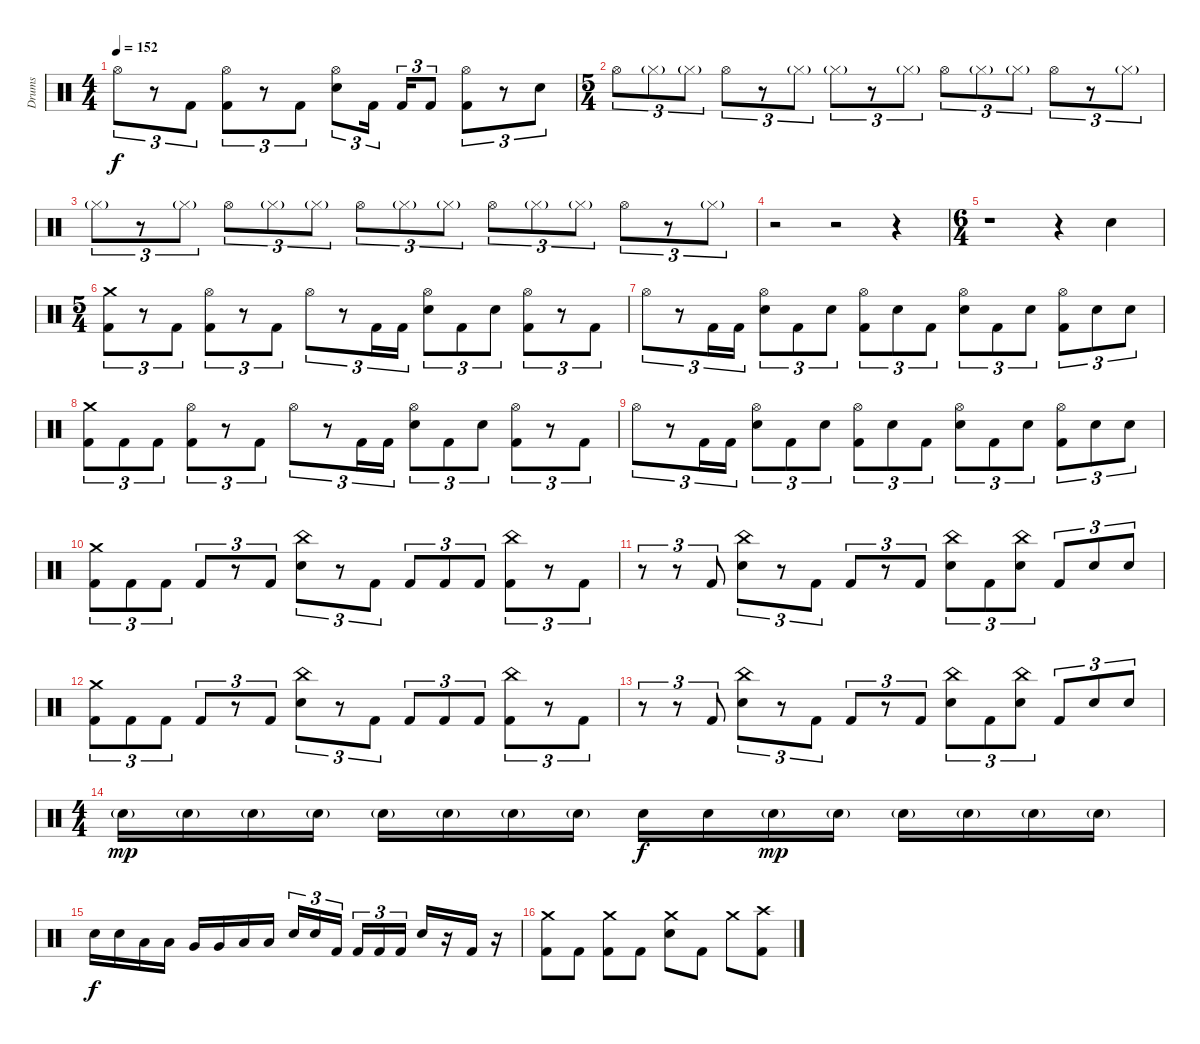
\track ("Drums" "Drums") {instrument percussion}
\staff {score}
\articulation defaults
\ts (4 4)
\tempo 152
\clef neutral
\ks c "Hi-Hat (open)".8{tu (3 2) dy f}
r.8{tu (3 2)} "Kick (hit) 2".8{tu (3 2)} ("Hi-Hat (open)" "Kick (hit) 2").8{tu (3 2)} r.8{tu (3 2)} "Kick (hit) 2".8{tu (3 2)} ("Hi-Hat (open)" "Electric Snare (hit)").8{tu (3 2)} "Kick (hit) 2".16{tu (3 2)} "Kick (hit) 2".16{tu (3 2)} "Kick (hit) 2".8{tu (3 2)} ("Hi-Hat (open)" "Kick (hit) 2").8{tu (3 2)} r.8{tu (3 2)} "Electric Snare (hit)".8{tu (3 2)} |
\ts (5 4)
"Hi-Hat (open)".8{tu (3 2)} "Hi-Hat (closed)"{g}.8{tu (3 2)} "Hi-Hat (closed)"{g}.8{tu (3 2)} "Hi-Hat (open)".8{tu (3 2)} r.8{tu (3 2)} "Hi-Hat (closed)"{g}.8{tu (3 2)} "Hi-Hat (closed)"{g}.8{tu (3 2)} r.8{tu (3 2)} "Hi-Hat (closed)"{g}.8{tu (3 2)} "Hi-Hat (open)".8{tu (3 2)} "Hi-Hat (closed)"{g}.8{tu (3 2)} "Hi-Hat (closed)"{g}.8{tu (3 2)} "Hi-Hat (open)".8{tu (3 2)} r.8{tu (3 2)} "Hi-Hat (closed)"{g}.8{tu (3 2)} |
"Hi-Hat (closed)"{g}.8{tu (3 2)} r.8{tu (3 2)} "Hi-Hat (closed)"{g}.8{tu (3 2)} "Hi-Hat (open)".8{tu (3 2)} "Hi-Hat (closed)"{g}.8{tu (3 2)} "Hi-Hat (closed)"{g}.8{tu (3 2)} "Hi-Hat (open)".8{tu (3 2)} "Hi-Hat (closed)"{g}.8{tu (3 2)} "Hi-Hat (closed)"{g}.8{tu (3 2)} "Hi-Hat (open)".8{tu (3 2)} "Hi-Hat (closed)"{g}.8{tu (3 2)} "Hi-Hat (closed)"{g}.8{tu (3 2)} "Hi-Hat (open)".8{tu (3 2)} r.8{tu (3 2)} "Hi-Hat (closed)"{g}.8{tu (3 2)} |
r.2 r.2 r.4 |
\ts (6 4)
r.1 r.4 "Electric Snare (hit)".4 |
\ts (5 4)
("Crash medium (hit)" "Kick (hit) 2").8{tu (3 2)} r.8{tu (3 2)} "Kick (hit) 2".8{tu (3 2)} ("Hi-Hat (open)" "Kick (hit) 2").8{tu (3 2)} r.8{tu (3 2)} "Kick (hit) 2".8{tu (3 2)} "Hi-Hat (open)".8{tu (3 2)} r.8{tu (3 2)} "Kick (hit) 2".16{tu (3 2)} "Kick (hit) 2".16{tu (3 2)} ("Hi-Hat (open)" "Electric Snare (hit)").8{tu (3 2)} "Kick (hit) 2".8{tu (3 2)} "Electric Snare (hit)".8{tu (3 2)} ("Hi-Hat (open)" "Kick (hit) 2").8{tu (3 2)} r.8{tu (3 2)} "Kick (hit) 2".8{tu (3 2)} |
"Hi-Hat (open)".8{tu (3 2)} r.8{tu (3 2)} "Kick (hit) 2".16{tu (3 2)} "Kick (hit) 2".16{tu (3 2)} ("Hi-Hat (open)" "Electric Snare (hit)").8{tu (3 2)} "Kick (hit) 2".8{tu (3 2)} "Electric Snare (hit)".8{tu (3 2)} ("Hi-Hat (open)" "Kick (hit) 2").8{tu (3 2)} "Electric Snare (hit)".8{tu (3 2)} "Kick (hit) 2".8{tu (3 2)} ("Hi-Hat (open)" "Electric Snare (hit)").8{tu (3 2)} "Kick (hit) 2".8{tu (3 2)} "Electric Snare (hit)".8{tu (3 2)} ("Hi-Hat (open)" "Kick (hit) 2").8{tu (3 2)} "Electric Snare (hit)".8{tu (3 2)} "Electric Snare (hit)".8{tu (3 2)} |
("Crash medium (hit)" "Kick (hit) 2").8{tu (3 2)} "Kick (hit) 2".8{tu (3 2)} "Kick (hit) 2".8{tu (3 2)} ("Hi-Hat (open)" "Kick (hit) 2").8{tu (3 2)} r.8{tu (3 2)} "Kick (hit) 2".8{tu (3 2)} "Hi-Hat (open)".8{tu (3 2)} r.8{tu (3 2)} "Kick (hit) 2".16{tu (3 2)} "Kick (hit) 2".16{tu (3 2)} ("Hi-Hat (open)" "Electric Snare (hit)").8{tu (3 2)} "Kick (hit) 2".8{tu (3 2)} "Electric Snare (hit)".8{tu (3 2)} ("Hi-Hat (open)" "Kick (hit) 2").8{tu (3 2)} r.8{tu (3 2)} "Kick (hit) 2".8{tu (3 2)} |
"Hi-Hat (open)".8{tu (3 2)} r.8{tu (3 2)} "Kick (hit) 2".16{tu (3 2)} "Kick (hit) 2".16{tu (3 2)} ("Hi-Hat (open)" "Electric Snare (hit)").8{tu (3 2)} "Kick (hit) 2".8{tu (3 2)} "Electric Snare (hit)".8{tu (3 2)} ("Hi-Hat (open)" "Kick (hit) 2").8{tu (3 2)} "Electric Snare (hit)".8{tu (3 2)} "Kick (hit) 2".8{tu (3 2)} ("Hi-Hat (open)" "Electric Snare (hit)").8{tu (3 2)} "Kick (hit) 2".8{tu (3 2)} "Electric Snare (hit)".8{tu (3 2)} ("Hi-Hat (open)" "Kick (hit) 2").8{tu (3 2)} "Electric Snare (hit)".8{tu (3 2)} "Electric Snare (hit)".8{tu (3 2)} |
("Crash medium (hit)" "Kick (hit) 2").8{tu (3 2)} "Kick (hit) 2".8{tu (3 2)} "Kick (hit) 2".8{tu (3 2)} "Kick (hit) 2".8{tu (3 2)} r.8{tu (3 2)} "Kick (hit) 2".8{tu (3 2)} ("China (hit)" "Electric Snare (hit)").8{tu (3 2)} r.8{tu (3 2)} "Kick (hit) 2".8{tu (3 2)} "Kick (hit) 2".8{tu (3 2)} "Kick (hit) 2".8{tu (3 2)} "Kick (hit) 2".8{tu (3 2)} ("China (hit)" "Kick (hit) 2").8{tu (3 2)} r.8{tu (3 2)} "Kick (hit) 2".8{tu (3 2)} |
r.8{tu (3 2)} r.8{tu (3 2)} "Kick (hit) 2".8{tu (3 2)} ("China (hit)" "Electric Snare (hit)").8{tu (3 2)} r.8{tu (3 2)} "Kick (hit) 2".8{tu (3 2)} "Kick (hit) 2".8{tu (3 2)} r.8{tu (3 2)} "Kick (hit) 2".8{tu (3 2)} ("China (hit)" "Electric Snare (hit)").8{tu (3 2)} "Kick (hit) 2".8{tu (3 2)} ("China (hit)" "Electric Snare (hit)").8{tu (3 2)} "Kick (hit) 2".8{tu (3 2)} "Electric Snare (hit)".8{tu (3 2)} "Electric Snare (hit)".8{tu (3 2)} |
("Crash medium (hit)" "Kick (hit) 2").8{tu (3 2)} "Kick (hit) 2".8{tu (3 2)} "Kick (hit) 2".8{tu (3 2)} "Kick (hit) 2".8{tu (3 2)} r.8{tu (3 2)} "Kick (hit) 2".8{tu (3 2)} ("China (hit)" "Electric Snare (hit)").8{tu (3 2)} r.8{tu (3 2)} "Kick (hit) 2".8{tu (3 2)} "Kick (hit) 2".8{tu (3 2)} "Kick (hit) 2".8{tu (3 2)} "Kick (hit) 2".8{tu (3 2)} ("China (hit)" "Kick (hit) 2").8{tu (3 2)} r.8{tu (3 2)} "Kick (hit) 2".8{tu (3 2)} |
r.8{tu (3 2)} r.8{tu (3 2)} "Kick (hit) 2".8{tu (3 2)} ("China (hit)" "Electric Snare (hit)").8{tu (3 2)} r.8{tu (3 2)} "Kick (hit) 2".8{tu (3 2)} "Kick (hit) 2".8{tu (3 2)} r.8{tu (3 2)} "Kick (hit) 2".8{tu (3 2)} ("China (hit)" "Electric Snare (hit)").8{tu (3 2)} "Kick (hit) 2".8{tu (3 2)} ("China (hit)" "Electric Snare (hit)").8{tu (3 2)} "Kick (hit) 2".8{tu (3 2)} "Electric Snare (hit)".8{tu (3 2)} "Electric Snare (hit)".8{tu (3 2)} |
\ts (4 4)
"Snare (hit) 2"{g}.16{dy mp} "Snare (hit) 2"{g}.16 "Snare (hit) 2"{g}.16 "Snare (hit) 2"{g}.16 "Snare (hit) 2"{g}.16 "Snare (hit) 2"{g}.16 "Snare (hit) 2"{g}.16 "Snare (hit) 2"{g}.16 "Electric Snare (hit)".16{dy f} "Electric Snare (hit)".16 "Snare (hit) 2"{g}.16{dy mp} "Snare (hit) 2"{g}.16 "Snare (hit) 2"{g}.16 "Snare (hit) 2"{g}.16 "Snare (hit) 2"{g}.16 "Snare (hit) 2"{g}.16 |
"Electric Snare (hit)".16{dy f} "Electric Snare (hit)".16 "Low Tom (hit)".16 "Low Tom (hit)".16 "Very Low Tom (hit)".16 "Very Low Tom (hit)".16 "Low Tom (hit)".16 "Low Tom (hit)".16 "Electric Snare (hit)".16{tu (3 2)} "Electric Snare (hit)".16{tu (3 2)} "Kick (hit) 2".16{tu (3 2)} "Kick (hit) 2".16{tu (3 2)} "Kick (hit) 2".16{tu (3 2)} "Kick (hit) 2".16{tu (3 2)} "Electric Snare (hit)".16 r.16 "Kick (hit) 2".16 r.16 |
("Crash medium (hit)" "Kick (hit) 2").8 "Kick (hit) 2".8 ("Crash medium (hit)" "Kick (hit) 2").8 "Kick (hit) 2".8 ("Crash medium (hit)" "Electric Snare (hit)").8 "Kick (hit) 2".8 "Crash medium (hit)".8 ("Crash high (hit)" "Kick (hit) 2").8
